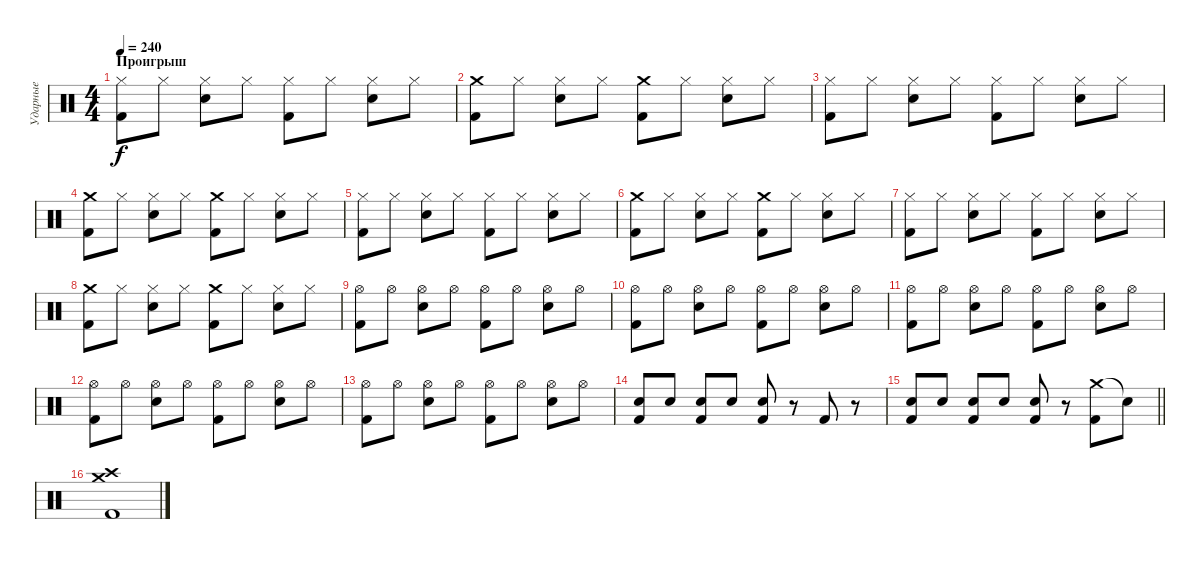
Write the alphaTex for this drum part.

\track ("Ударные" "Ударные") {instrument percussion}
\staff {score}
\articulation defaults
\ts (4 4)
\section ("" "Проигрыш")
\tempo 240
\clef neutral
\ks c
("Hi-Hat (closed)" "Kick (hit) 2").8{dy f} "Hi-Hat (closed)".8 ("Hi-Hat (closed)" "Snare (hit) 2").8 "Hi-Hat (closed)".8 ("Hi-Hat (closed)" "Kick (hit) 2").8 "Hi-Hat (closed)".8 ("Hi-Hat (closed)" "Snare (hit) 2").8 "Hi-Hat (closed)".8 |
("Crash medium (hit)" "Kick (hit) 2").8 "Hi-Hat (closed)".8 ("Hi-Hat (closed)" "Snare (hit) 2").8 "Hi-Hat (closed)".8 ("Crash medium (hit)" "Kick (hit) 2").8 "Hi-Hat (closed)".8 ("Hi-Hat (closed)" "Snare (hit) 2").8 "Hi-Hat (closed)".8 |
("Hi-Hat (closed)" "Kick (hit) 2").8 "Hi-Hat (closed)".8 ("Hi-Hat (closed)" "Snare (hit) 2").8 "Hi-Hat (closed)".8 ("Hi-Hat (closed)" "Kick (hit) 2").8 "Hi-Hat (closed)".8 ("Hi-Hat (closed)" "Snare (hit) 2").8 "Hi-Hat (closed)".8 |
("Crash medium (hit)" "Kick (hit) 2").8 "Hi-Hat (closed)".8 ("Hi-Hat (closed)" "Snare (hit) 2").8 "Hi-Hat (closed)".8 ("Crash medium (hit)" "Kick (hit) 2").8 "Hi-Hat (closed)".8 ("Hi-Hat (closed)" "Snare (hit) 2").8 "Hi-Hat (closed)".8 |
("Hi-Hat (closed)" "Kick (hit) 2").8 "Hi-Hat (closed)".8 ("Hi-Hat (closed)" "Snare (hit) 2").8 "Hi-Hat (closed)".8 ("Hi-Hat (closed)" "Kick (hit) 2").8 "Hi-Hat (closed)".8 ("Hi-Hat (closed)" "Snare (hit) 2").8 "Hi-Hat (closed)".8 |
("Crash medium (hit)" "Kick (hit) 2").8 "Hi-Hat (closed)".8 ("Hi-Hat (closed)" "Snare (hit) 2").8 "Hi-Hat (closed)".8 ("Crash medium (hit)" "Kick (hit) 2").8 "Hi-Hat (closed)".8 ("Hi-Hat (closed)" "Snare (hit) 2").8 "Hi-Hat (closed)".8 |
("Hi-Hat (closed)" "Kick (hit) 2").8 "Hi-Hat (closed)".8 ("Hi-Hat (closed)" "Snare (hit) 2").8 "Hi-Hat (closed)".8 ("Hi-Hat (closed)" "Kick (hit) 2").8 "Hi-Hat (closed)".8 ("Hi-Hat (closed)" "Snare (hit) 2").8 "Hi-Hat (closed)".8 |
("Crash medium (hit)" "Kick (hit) 2").8 "Hi-Hat (closed)".8 ("Hi-Hat (closed)" "Snare (hit) 2").8 "Hi-Hat (closed)".8 ("Crash medium (hit)" "Kick (hit) 2").8 "Hi-Hat (closed)".8 ("Hi-Hat (closed)" "Snare (hit) 2").8 "Hi-Hat (closed)".8 |
("Hi-Hat (open)" "Kick (hit) 2").8 "Hi-Hat (open)".8 ("Hi-Hat (open)" "Snare (hit) 2").8 "Hi-Hat (open)".8 ("Hi-Hat (open)" "Kick (hit) 2").8 "Hi-Hat (open)".8 ("Hi-Hat (open)" "Snare (hit) 2").8 "Hi-Hat (open)".8 |
("Hi-Hat (open)" "Kick (hit) 2").8 "Hi-Hat (open)".8 ("Hi-Hat (open)" "Snare (hit) 2").8 "Hi-Hat (open)".8 ("Hi-Hat (open)" "Kick (hit) 2").8 "Hi-Hat (open)".8 ("Hi-Hat (open)" "Snare (hit) 2").8 "Hi-Hat (open)".8 |
("Hi-Hat (open)" "Kick (hit) 2").8 "Hi-Hat (open)".8 ("Hi-Hat (open)" "Snare (hit) 2").8 "Hi-Hat (open)".8 ("Hi-Hat (open)" "Kick (hit) 2").8 "Hi-Hat (open)".8 ("Hi-Hat (open)" "Snare (hit) 2").8 "Hi-Hat (open)".8 |
("Hi-Hat (open)" "Kick (hit) 2").8 "Hi-Hat (open)".8 ("Hi-Hat (open)" "Snare (hit) 2").8 "Hi-Hat (open)".8 ("Hi-Hat (open)" "Kick (hit) 2").8 "Hi-Hat (open)".8 ("Hi-Hat (open)" "Snare (hit) 2").8 "Hi-Hat (open)".8 |
("Hi-Hat (open)" "Kick (hit) 2").8 "Hi-Hat (open)".8 ("Hi-Hat (open)" "Snare (hit) 2").8 "Hi-Hat (open)".8 ("Hi-Hat (open)" "Kick (hit) 2").8 "Hi-Hat (open)".8 ("Hi-Hat (open)" "Snare (hit) 2").8 "Hi-Hat (open)".8 |
("Snare (hit) 2" "Kick (hit) 2").8 "Snare (hit) 2".8 ("Snare (hit) 2" "Kick (hit) 2").8 "Snare (hit) 2".8 ("Snare (hit) 2" "Kick (hit) 2").8 r.8 "Kick (hit) 2".8 r.8 |
\barLineRight lightlight
("Snare (hit) 2" "Kick (hit) 2").8 "Snare (hit) 2".8 ("Snare (hit) 2" "Kick (hit) 2").8 "Snare (hit) 2".8 ("Snare (hit) 2" "Kick (hit) 2").8 r.8 ("Crash medium (hit)" "Kick (hit) 2").8 "Snare (hit)"{t}.8 |
("Crash high (hit)" "Crash medium (hit)" "Kick (hit) 2").1
